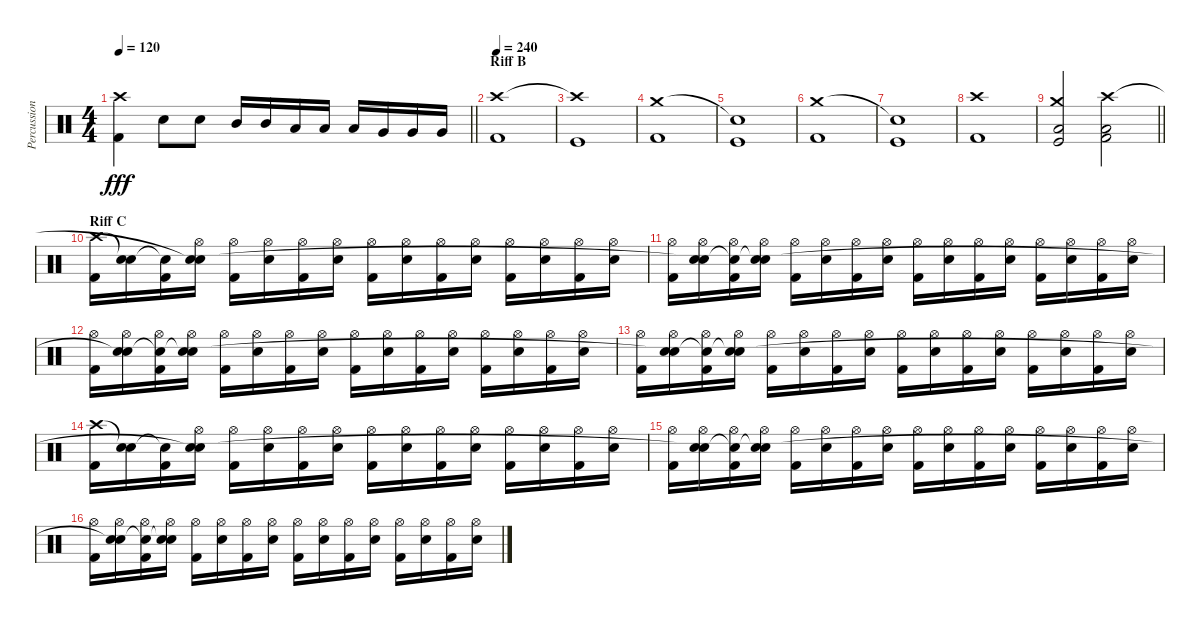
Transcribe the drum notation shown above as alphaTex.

\track ("Percussion" "Percussion") {instrument percussion}
\staff {score}
\articulation defaults
\ts (4 4)
\tempo 120
\clef neutral
\barLineRight lightlight
\ks c
("Crash high (hit)" "Kick (hit) 2").4{dy fff} "Snare (hit) 2".8 "Snare (hit) 2".8 "Mid Tom (hit)".16 "Mid Tom (hit)".16 "Low Tom (hit)".16 "Low Tom (hit)".16 "Low Tom (hit)".16 "Very Low Tom (hit)".16 "Very Low Tom (hit)".16 "Very Low Tom (hit)".16 |
\section ("" "Riff B")
\tempo 240
("Kick (hit) 2" "Crash high (hit)").1 |
("Kick (hit)" "Crash high (hit)"{t}).1 |
("Kick (hit) 2" "Crash medium (hit)").1 |
("Kick (hit)" "Snare (hit)"{t}).1 |
("Kick (hit) 2" "Crash medium (hit)").1 |
("Kick (hit)" "Snare (hit)"{t}).1 |
("Kick (hit) 2" "Crash high (hit)").1 |
\barLineRight lightlight
("Kick (hit)" "Low Floor Tom (hit)" "Crash medium (hit)").2 ("Kick (hit) 2" "Low Floor Tom (hit)" "Crash high (hit)").2 |
\section ("" "Riff C")
("Kick (hit) 2" "Crash high (hit)").16 ("Snare (hit) 2" "Snare (hit)"{t}).16 ("Kick (hit) 2" "Snare (hit)"{t}).16 ("Snare (hit) 2" "Hi-Hat (open)" "Snare (hit)"{t}).16 ("Kick (hit) 2" "Hi-Hat (open)").16 ("Snare (hit) 2" "Hi-Hat (open)").16 ("Kick (hit) 2" "Hi-Hat (open)").16 ("Snare (hit) 2" "Hi-Hat (open)").16 ("Kick (hit) 2" "Hi-Hat (open)").16 ("Snare (hit) 2" "Hi-Hat (open)").16 ("Kick (hit) 2" "Hi-Hat (open)").16 ("Snare (hit) 2" "Hi-Hat (open)").16 ("Kick (hit) 2" "Hi-Hat (open)").16 ("Snare (hit) 2" "Hi-Hat (open)").16 ("Kick (hit) 2" "Hi-Hat (open)").16 ("Snare (hit) 2" "Hi-Hat (open)").16 |
("Kick (hit) 2" "Hi-Hat (open)").16 ("Snare (hit) 2" "Hi-Hat (open)" "Snare (hit)"{t}).16 ("Kick (hit) 2" "Hi-Hat (open)" "Snare (hit)"{t}).16 ("Snare (hit) 2" "Hi-Hat (open)" "Snare (hit)"{t}).16 ("Kick (hit) 2" "Hi-Hat (open)").16 ("Snare (hit) 2" "Hi-Hat (open)").16 ("Kick (hit) 2" "Hi-Hat (open)").16 ("Snare (hit) 2" "Hi-Hat (open)").16 ("Kick (hit) 2" "Hi-Hat (open)").16 ("Snare (hit) 2" "Hi-Hat (open)").16 ("Kick (hit) 2" "Hi-Hat (open)").16 ("Snare (hit) 2" "Hi-Hat (open)").16 ("Kick (hit) 2" "Hi-Hat (open)").16 ("Snare (hit) 2" "Hi-Hat (open)").16 ("Kick (hit) 2" "Hi-Hat (open)").16 ("Snare (hit) 2" "Hi-Hat (open)").16 |
("Kick (hit) 2" "Hi-Hat (open)").16 ("Snare (hit) 2" "Hi-Hat (open)" "Snare (hit)"{t}).16 ("Kick (hit) 2" "Hi-Hat (open)" "Snare (hit)"{t}).16 ("Snare (hit) 2" "Hi-Hat (open)" "Snare (hit)"{t}).16 ("Kick (hit) 2" "Hi-Hat (open)").16 ("Snare (hit) 2" "Hi-Hat (open)").16 ("Kick (hit) 2" "Hi-Hat (open)").16 ("Snare (hit) 2" "Hi-Hat (open)").16 ("Kick (hit) 2" "Hi-Hat (open)").16 ("Snare (hit) 2" "Hi-Hat (open)").16 ("Kick (hit) 2" "Hi-Hat (open)").16 ("Snare (hit) 2" "Hi-Hat (open)").16 ("Kick (hit) 2" "Hi-Hat (open)").16 ("Snare (hit) 2" "Hi-Hat (open)").16 ("Kick (hit) 2" "Hi-Hat (open)").16 ("Snare (hit) 2" "Hi-Hat (open)").16 |
("Kick (hit) 2" "Hi-Hat (open)").16 ("Snare (hit) 2" "Hi-Hat (open)" "Snare (hit)"{t}).16 ("Kick (hit) 2" "Hi-Hat (open)" "Snare (hit)"{t}).16 ("Snare (hit) 2" "Hi-Hat (open)" "Snare (hit)"{t}).16 ("Kick (hit) 2" "Hi-Hat (open)").16 ("Snare (hit) 2" "Hi-Hat (open)").16 ("Kick (hit) 2" "Hi-Hat (open)").16 ("Snare (hit) 2" "Hi-Hat (open)").16 ("Kick (hit) 2" "Hi-Hat (open)").16 ("Snare (hit) 2" "Hi-Hat (open)").16 ("Kick (hit) 2" "Hi-Hat (open)").16 ("Snare (hit) 2" "Hi-Hat (open)").16 ("Kick (hit) 2" "Hi-Hat (open)").16 ("Snare (hit) 2" "Hi-Hat (open)").16 ("Kick (hit) 2" "Hi-Hat (open)").16 ("Snare (hit) 2" "Hi-Hat (open)").16 |
("Kick (hit) 2" "Crash high (hit)").16 ("Snare (hit) 2" "Snare (hit)"{t}).16 ("Kick (hit) 2" "Snare (hit)"{t}).16 ("Snare (hit) 2" "Hi-Hat (open)" "Snare (hit)"{t}).16 ("Kick (hit) 2" "Hi-Hat (open)").16 ("Snare (hit) 2" "Hi-Hat (open)").16 ("Kick (hit) 2" "Hi-Hat (open)").16 ("Snare (hit) 2" "Hi-Hat (open)").16 ("Kick (hit) 2" "Hi-Hat (open)").16 ("Snare (hit) 2" "Hi-Hat (open)").16 ("Kick (hit) 2" "Hi-Hat (open)").16 ("Snare (hit) 2" "Hi-Hat (open)").16 ("Kick (hit) 2" "Hi-Hat (open)").16 ("Snare (hit) 2" "Hi-Hat (open)").16 ("Kick (hit) 2" "Hi-Hat (open)").16 ("Snare (hit) 2" "Hi-Hat (open)").16 |
("Kick (hit) 2" "Hi-Hat (open)").16 ("Snare (hit) 2" "Hi-Hat (open)" "Snare (hit)"{t}).16 ("Kick (hit) 2" "Hi-Hat (open)" "Snare (hit)"{t}).16 ("Snare (hit) 2" "Hi-Hat (open)" "Snare (hit)"{t}).16 ("Kick (hit) 2" "Hi-Hat (open)").16 ("Snare (hit) 2" "Hi-Hat (open)").16 ("Kick (hit) 2" "Hi-Hat (open)").16 ("Snare (hit) 2" "Hi-Hat (open)").16 ("Kick (hit) 2" "Hi-Hat (open)").16 ("Snare (hit) 2" "Hi-Hat (open)").16 ("Kick (hit) 2" "Hi-Hat (open)").16 ("Snare (hit) 2" "Hi-Hat (open)").16 ("Kick (hit) 2" "Hi-Hat (open)").16 ("Snare (hit) 2" "Hi-Hat (open)").16 ("Kick (hit) 2" "Hi-Hat (open)").16 ("Snare (hit) 2" "Hi-Hat (open)").16 |
("Kick (hit) 2" "Hi-Hat (open)").16 ("Snare (hit) 2" "Hi-Hat (open)" "Snare (hit)"{t}).16 ("Kick (hit) 2" "Hi-Hat (open)" "Snare (hit)"{t}).16 ("Snare (hit) 2" "Hi-Hat (open)" "Snare (hit)"{t}).16 ("Kick (hit) 2" "Hi-Hat (open)").16 ("Snare (hit) 2" "Hi-Hat (open)").16 ("Kick (hit) 2" "Hi-Hat (open)").16 ("Snare (hit) 2" "Hi-Hat (open)").16 ("Kick (hit) 2" "Hi-Hat (open)").16 ("Snare (hit) 2" "Hi-Hat (open)").16 ("Kick (hit) 2" "Hi-Hat (open)").16 ("Snare (hit) 2" "Hi-Hat (open)").16 ("Kick (hit) 2" "Hi-Hat (open)").16 ("Snare (hit) 2" "Hi-Hat (open)").16 ("Kick (hit) 2" "Hi-Hat (open)").16 ("Snare (hit) 2" "Hi-Hat (open)").16
